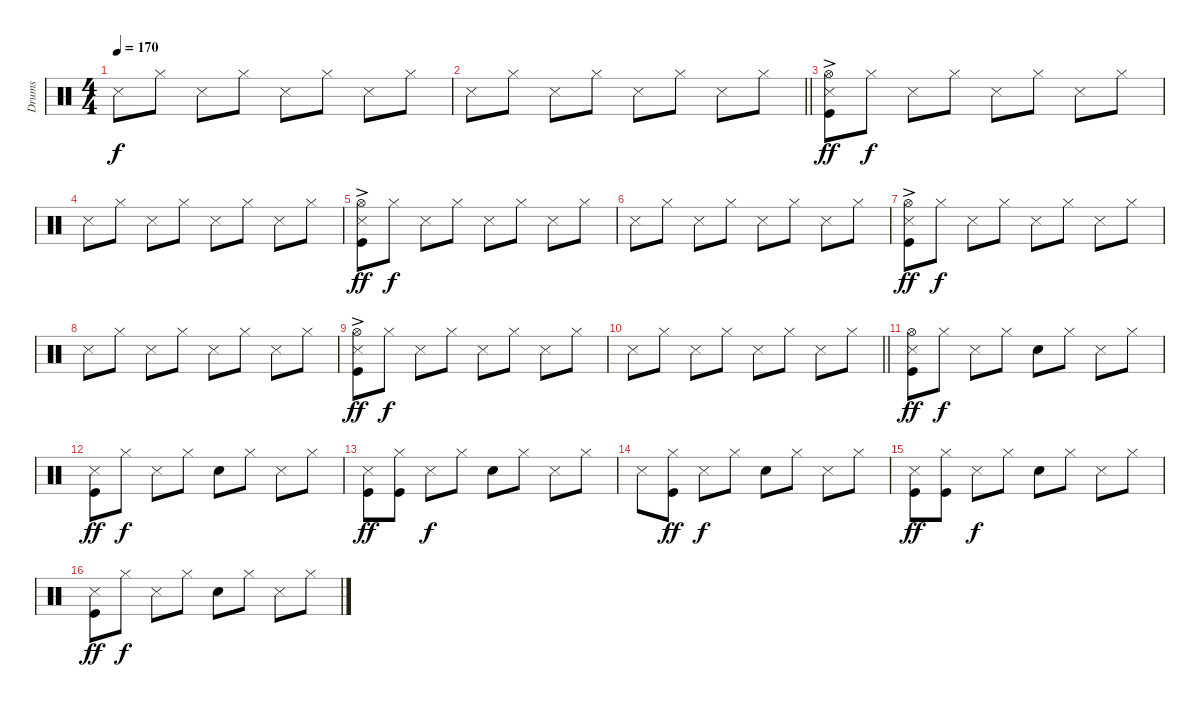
\track ("Drums" "Drums") {instrument percussion}
\staff {score}
\articulation defaults
\ts (4 4)
\tempo 170
\clef neutral
\ks c "Snare (side stick) 3".8{dy f} "Hi-Hat (closed)".8 "Snare (side stick) 3".8 "Hi-Hat (closed)".8 "Snare (side stick) 3".8 "Hi-Hat (closed)".8 "Snare (side stick) 3".8 "Hi-Hat (closed)".8
|
\barLineRight lightlight "Snare (side stick) 3".8 "Hi-Hat (closed)".8 "Snare (side stick) 3".8 "Hi-Hat (closed)".8 "Snare (side stick) 3".8 "Hi-Hat (closed)".8 "Snare (side stick) 3".8 "Hi-Hat (closed)".8
|
("Hi-Hat (open)" "Snare (side stick) 3" "Kick (hit)"{ac}).8{dy ff} "Hi-Hat (closed)".8{dy f} "Snare (side stick) 3".8 "Hi-Hat (closed)".8 "Snare (side stick) 3".8 "Hi-Hat (closed)".8 "Snare (side stick) 3".8 "Hi-Hat (closed)".8 |
"Snare (side stick) 3".8 "Hi-Hat (closed)".8 "Snare (side stick) 3".8 "Hi-Hat (closed)".8 "Snare (side stick) 3".8 "Hi-Hat (closed)".8 "Snare (side stick) 3".8 "Hi-Hat (closed)".8 |
("Hi-Hat (open)" "Snare (side stick) 3" "Kick (hit)"{ac}).8{dy ff} "Hi-Hat (closed)".8{dy f} "Snare (side stick) 3".8 "Hi-Hat (closed)".8 "Snare (side stick) 3".8 "Hi-Hat (closed)".8 "Snare (side stick) 3".8 "Hi-Hat (closed)".8 |
"Snare (side stick) 3".8 "Hi-Hat (closed)".8 "Snare (side stick) 3".8 "Hi-Hat (closed)".8 "Snare (side stick) 3".8 "Hi-Hat (closed)".8 "Snare (side stick) 3".8 "Hi-Hat (closed)".8 |
("Hi-Hat (open)" "Snare (side stick) 3" "Kick (hit)"{ac}).8{dy ff} "Hi-Hat (closed)".8{dy f} "Snare (side stick) 3".8 "Hi-Hat (closed)".8 "Snare (side stick) 3".8 "Hi-Hat (closed)".8 "Snare (side stick) 3".8 "Hi-Hat (closed)".8 |
"Snare (side stick) 3".8 "Hi-Hat (closed)".8 "Snare (side stick) 3".8 "Hi-Hat (closed)".8 "Snare (side stick) 3".8 "Hi-Hat (closed)".8 "Snare (side stick) 3".8 "Hi-Hat (closed)".8 |
("Hi-Hat (open)" "Snare (side stick) 3" "Kick (hit)"{ac}).8{dy ff} "Hi-Hat (closed)".8{dy f} "Snare (side stick) 3".8 "Hi-Hat (closed)".8 "Snare (side stick) 3".8 "Hi-Hat (closed)".8 "Snare (side stick) 3".8 "Hi-Hat (closed)".8 |
\barLineRight lightlight "Snare (side stick) 3".8 "Hi-Hat (closed)".8 "Snare (side stick) 3".8 "Hi-Hat (closed)".8 "Snare (side stick) 3".8 "Hi-Hat (closed)".8 "Snare (side stick) 3".8 "Hi-Hat (closed)".8
|
("Hi-Hat (open)" "Snare (side stick) 3" "Kick (hit)").8{dy ff} "Hi-Hat (closed)".8{dy f} "Snare (side stick) 3".8 "Hi-Hat (closed)".8 "Snare (hit) 2".8 "Hi-Hat (closed)".8 "Snare (side stick) 3".8 "Hi-Hat (closed)".8 |
("Snare (side stick) 3" "Kick (hit)").8{dy ff} "Hi-Hat (closed)".8{dy f} "Snare (side stick) 3".8 "Hi-Hat (closed)".8 "Snare (hit) 2".8 "Hi-Hat (closed)".8 "Snare (side stick) 3".8 "Hi-Hat (closed)".8 |
("Snare (side stick) 3" "Kick (hit)").8{dy ff} ("Hi-Hat (closed)" "Kick (hit)").8 "Snare (side stick) 3".8{dy f} "Hi-Hat (closed)".8 "Snare (hit) 2".8 "Hi-Hat (closed)".8 "Snare (side stick) 3".8 "Hi-Hat (closed)".8 |
"Snare (side stick) 3".8 ("Hi-Hat (closed)" "Kick (hit)").8{dy ff} "Snare (side stick) 3".8{dy f} "Hi-Hat (closed)".8 "Snare (hit) 2".8 "Hi-Hat (closed)".8 "Snare (side stick) 3".8 "Hi-Hat (closed)".8 |
("Snare (side stick) 3" "Kick (hit)").8{dy ff} ("Hi-Hat (closed)" "Kick (hit)").8 "Snare (side stick) 3".8{dy f} "Hi-Hat (closed)".8 "Snare (hit) 2".8 "Hi-Hat (closed)".8 "Snare (side stick) 3".8 "Hi-Hat (closed)".8 |
("Snare (side stick) 3" "Kick (hit)").8{dy ff} "Hi-Hat (closed)".8{dy f} "Snare (side stick) 3".8 "Hi-Hat (closed)".8 "Snare (hit) 2".8 "Hi-Hat (closed)".8 "Snare (side stick) 3".8 "Hi-Hat (closed)".8
